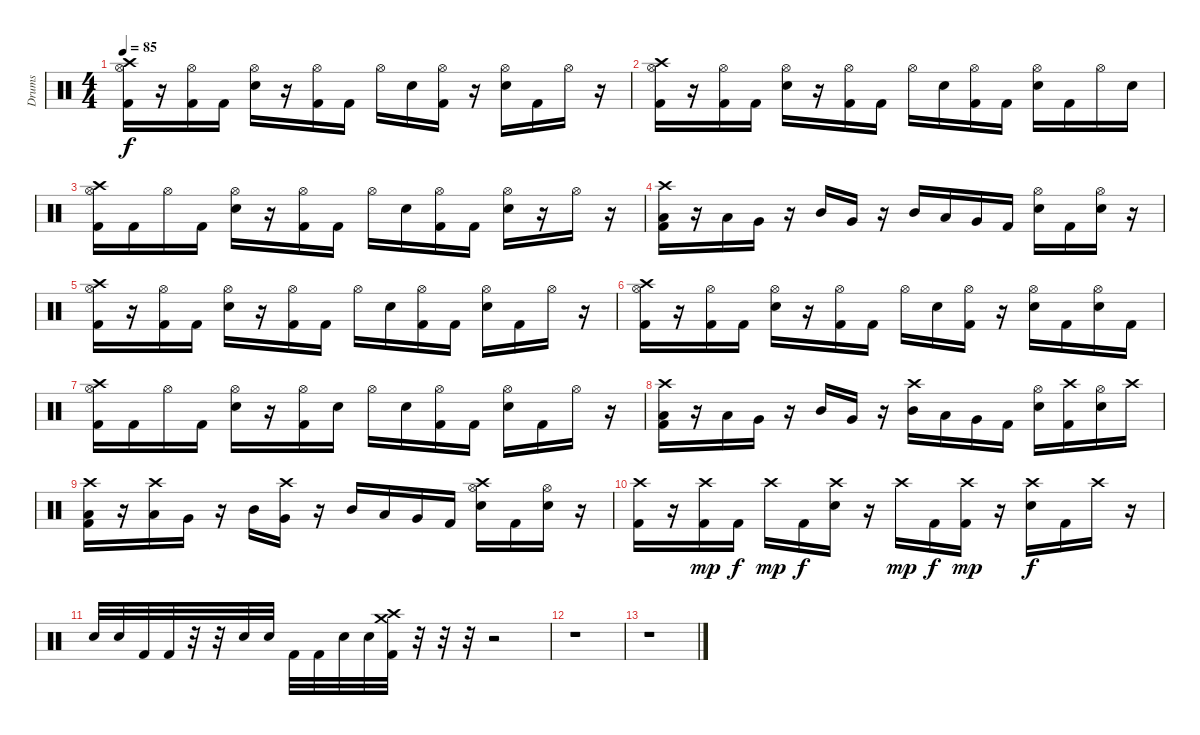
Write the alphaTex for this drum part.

\track ("Drums" "Drums") {instrument percussion}
\staff {score}
\articulation defaults
\ts (4 4)
\tempo 85
\clef neutral
\ks c
("Crash high (hit)" "Hi-Hat (open)" "Kick (hit) 2").16{dy f} r.16 ("Hi-Hat (open)" "Kick (hit) 2").16 "Kick (hit) 2".16 ("Hi-Hat (open)" "Electric Snare (hit)").16 r.16 ("Hi-Hat (open)" "Kick (hit) 2").16 "Kick (hit) 2".16 "Hi-Hat (open)".16 "Electric Snare (hit)".16 ("Hi-Hat (open)" "Kick (hit) 2").16 r.16 ("Hi-Hat (open)" "Electric Snare (hit)").16 "Kick (hit) 2".16 "Hi-Hat (open)".16 r.16 |
("Crash high (hit)" "Hi-Hat (open)" "Kick (hit) 2").16 r.16 ("Hi-Hat (open)" "Kick (hit) 2").16 "Kick (hit) 2".16 ("Hi-Hat (open)" "Electric Snare (hit)").16 r.16 ("Hi-Hat (open)" "Kick (hit) 2").16 "Kick (hit) 2".16 "Hi-Hat (open)".16 "Electric Snare (hit)".16 ("Hi-Hat (open)" "Kick (hit) 2").16 "Kick (hit) 2".16 ("Hi-Hat (open)" "Electric Snare (hit)").16 "Kick (hit) 2".16 "Hi-Hat (open)".16 "Electric Snare (hit)".16 |
("Crash high (hit)" "Hi-Hat (open)" "Kick (hit) 2").16 "Kick (hit) 2".16 "Hi-Hat (open)".16 "Kick (hit) 2".16 ("Hi-Hat (open)" "Electric Snare (hit)").16 r.16 ("Hi-Hat (open)" "Kick (hit) 2").16 "Kick (hit) 2".16 "Hi-Hat (open)".16 "Electric Snare (hit)".16 ("Hi-Hat (open)" "Kick (hit) 2").16 "Kick (hit) 2".16 ("Hi-Hat (open)" "Electric Snare (hit)").16 r.16 "Hi-Hat (open)".16 r.16 |
("Crash high (hit)" "Low Tom (hit)" "Kick (hit) 2").16 r.16 "Low Tom (hit)".16 "Very Low Tom (hit)".16 r.16 "Mid Tom (hit)".16 "Very Low Tom (hit)".16 r.16 "Mid Tom (hit)".16 "Low Tom (hit)".16 "Very Low Tom (hit)".16 "Kick (hit) 2".16 ("Hi-Hat (open)" "Electric Snare (hit)").16 "Kick (hit) 2".16 ("Hi-Hat (open)" "Electric Snare (hit)").16 r.16 |
("Crash high (hit)" "Hi-Hat (open)" "Kick (hit) 2").16 r.16 ("Hi-Hat (open)" "Kick (hit) 2").16 "Kick (hit) 2".16 ("Hi-Hat (open)" "Electric Snare (hit)").16 r.16 ("Hi-Hat (open)" "Kick (hit) 2").16 "Kick (hit) 2".16 "Hi-Hat (open)".16 "Electric Snare (hit)".16 ("Hi-Hat (open)" "Kick (hit) 2").16 "Kick (hit) 2".16 ("Hi-Hat (open)" "Electric Snare (hit)").16 "Kick (hit) 2".16 "Hi-Hat (open)".16 r.16 |
("Crash high (hit)" "Hi-Hat (open)" "Kick (hit) 2").16 r.16 ("Hi-Hat (open)" "Kick (hit) 2").16 "Kick (hit) 2".16 ("Hi-Hat (open)" "Electric Snare (hit)").16 r.16 ("Hi-Hat (open)" "Kick (hit) 2").16 "Kick (hit) 2".16 "Hi-Hat (open)".16 "Electric Snare (hit)".16 ("Hi-Hat (open)" "Kick (hit) 2").16 r.16 ("Hi-Hat (open)" "Electric Snare (hit)").16 "Kick (hit) 2".16 ("Hi-Hat (open)" "Electric Snare (hit)").16 "Kick (hit) 2".16 |
("Crash high (hit)" "Hi-Hat (open)" "Kick (hit) 2").16 "Kick (hit) 2".16 "Hi-Hat (open)".16 "Kick (hit) 2".16 ("Hi-Hat (open)" "Electric Snare (hit)").16 r.16 ("Hi-Hat (open)" "Kick (hit) 2").16 "Electric Snare (hit)".16 "Hi-Hat (open)".16 "Electric Snare (hit)".16 ("Hi-Hat (open)" "Kick (hit) 2").16 "Kick (hit) 2".16 ("Hi-Hat (open)" "Electric Snare (hit)").16 "Kick (hit) 2".16 "Hi-Hat (open)".16 r.16 |
("Crash high (hit)" "Low Tom (hit)" "Kick (hit) 2").16 r.16 "Low Tom (hit)".16 "Very Low Tom (hit)".16 r.16 "Mid Tom (hit)".16 "Very Low Tom (hit)".16 r.16 ("Crash high (hit)" "Mid Tom (hit)").16 "Low Tom (hit)".16 "Very Low Tom (hit)".16 "Kick (hit) 2".16 ("Hi-Hat (open)" "Electric Snare (hit)").16 ("Crash high (hit)" "Kick (hit) 2").16 ("Hi-Hat (open)" "Electric Snare (hit)").16 "Crash high (hit)".16 |
("Crash high (hit)" "Low Tom (hit)" "Kick (hit) 2").16 r.16 ("Crash high (hit)" "Low Tom (hit)").16 "Very Low Tom (hit)".16 r.16 "Mid Tom (hit)".16 ("Crash high (hit)" "Very Low Tom (hit)").16 r.16 "Mid Tom (hit)".16 "Low Tom (hit)".16 "Very Low Tom (hit)".16 "Kick (hit) 2".16 ("Crash high (hit)" "Hi-Hat (open)" "Electric Snare (hit)").16 "Kick (hit) 2".16 ("Hi-Hat (open)" "Electric Snare (hit)").16 r.16 |
("Crash high (hit)" "Kick (hit) 2").16 r.16 ("Crash high (hit)" "Kick (hit) 2").16{dy mp} "Kick (hit) 2".16{dy f} "Crash high (hit)".16{dy mp} "Kick (hit) 2".16{dy f} ("Crash high (hit)" "Electric Snare (hit)").16 r.16 "Crash high (hit)".16{dy mp} "Kick (hit) 2".16{dy f} ("Crash high (hit)" "Kick (hit) 2").16{dy mp} r.16 ("Crash high (hit)" "Electric Snare (hit)").16{dy f} "Kick (hit) 2".16 "Crash high (hit)".16 r.16 |
"Electric Snare (hit)".32 "Electric Snare (hit)".32 "Kick (hit) 2".32 "Kick (hit) 2".32 r.32 r.32 "Electric Snare (hit)".32 "Electric Snare (hit)".32 "Kick (hit) 2".32 "Kick (hit) 2".32 "Electric Snare (hit)".32 "Electric Snare (hit)".32 ("Crash medium (hit)" "Crash high (hit)" "Kick (hit) 2").32 r.32 r.32 r.32 r.2 |
r.1 |
r.1
